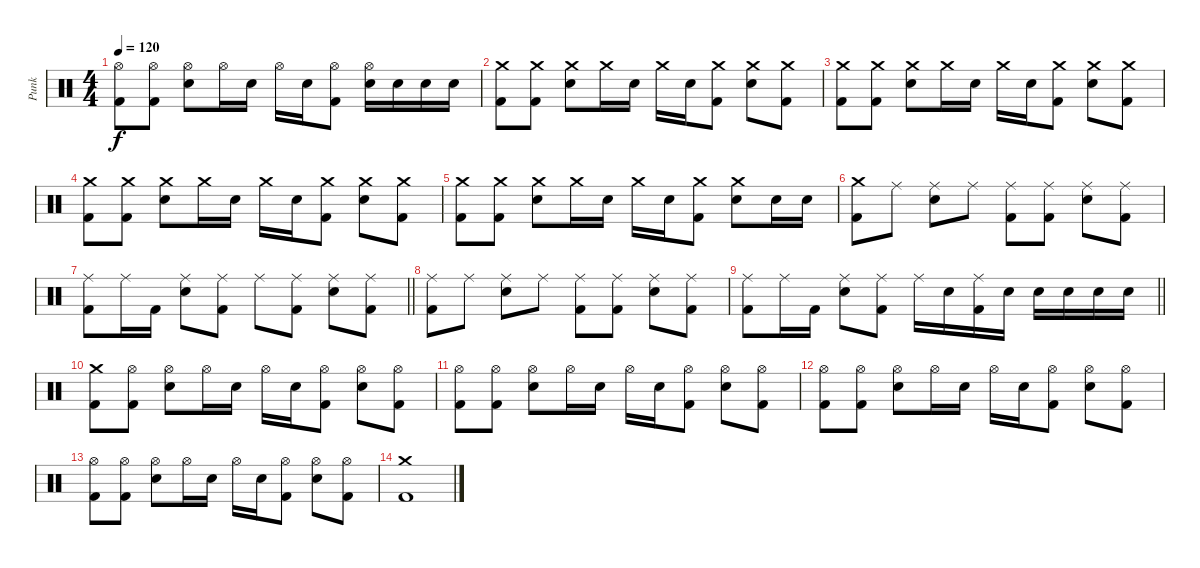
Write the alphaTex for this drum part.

\track ("Punk" "Punk") {instrument percussion}
\staff {score}
\articulation defaults
\ts (4 4)
\tempo 120
\clef neutral
\ks c
("Hi-Hat (open)" "Kick (hit) 2").8{dy f} ("Hi-Hat (open)" "Kick (hit) 2").8 ("Hi-Hat (open)" "Electric Snare (hit)").8 "Hi-Hat (open)".16 "Electric Snare (hit)".16 "Hi-Hat (open)".16 "Electric Snare (hit)".16 ("Hi-Hat (open)" "Kick (hit) 2").8 ("Hi-Hat (open)" "Electric Snare (hit)").16 "Electric Snare (hit)".16 "Electric Snare (hit)".16 "Electric Snare (hit)".16 |
("Crash medium (hit)" "Kick (hit) 2").8 ("Crash medium (hit)" "Kick (hit) 2").8 ("Crash medium (hit)" "Electric Snare (hit)").8 "Crash medium (hit)".16 "Electric Snare (hit)".16 "Crash medium (hit)".16 "Electric Snare (hit)".16 ("Crash medium (hit)" "Kick (hit) 2").8 ("Crash medium (hit)" "Electric Snare (hit)").8 ("Crash medium (hit)" "Kick (hit) 2").8 |
("Crash medium (hit)" "Kick (hit) 2").8 ("Crash medium (hit)" "Kick (hit) 2").8 ("Crash medium (hit)" "Electric Snare (hit)").8 "Crash medium (hit)".16 "Electric Snare (hit)".16 "Crash medium (hit)".16 "Electric Snare (hit)".16 ("Crash medium (hit)" "Kick (hit) 2").8 ("Crash medium (hit)" "Electric Snare (hit)").8 ("Crash medium (hit)" "Kick (hit) 2").8 |
("Crash medium (hit)" "Kick (hit) 2").8 ("Crash medium (hit)" "Kick (hit) 2").8 ("Crash medium (hit)" "Electric Snare (hit)").8 "Crash medium (hit)".16 "Electric Snare (hit)".16 "Crash medium (hit)".16 "Electric Snare (hit)".16 ("Crash medium (hit)" "Kick (hit) 2").8 ("Crash medium (hit)" "Electric Snare (hit)").8 ("Crash medium (hit)" "Kick (hit) 2").8 |
("Crash medium (hit)" "Kick (hit) 2").8 ("Crash medium (hit)" "Kick (hit) 2").8 ("Crash medium (hit)" "Electric Snare (hit)").8 "Crash medium (hit)".16 "Electric Snare (hit)".16 "Crash medium (hit)".16 "Electric Snare (hit)".16 ("Crash medium (hit)" "Kick (hit) 2").8 ("Crash medium (hit)" "Electric Snare (hit)").8 "Electric Snare (hit)".16 "Electric Snare (hit)".16 |
("Crash medium (hit)" "Kick (hit) 2").8 "Ride (middle)".8 ("Ride (middle)" "Electric Snare (hit)").8 "Ride (middle)".8 ("Ride (middle)" "Kick (hit) 2").8 ("Ride (middle)" "Kick (hit) 2").8 ("Ride (middle)" "Electric Snare (hit)").8 ("Ride (middle)" "Kick (hit) 2").8 |
\barLineRight lightlight
("Ride (middle)" "Kick (hit) 2").8 "Ride (middle)".16 "Kick (hit) 2".16 ("Ride (middle)" "Electric Snare (hit)").8 ("Ride (middle)" "Kick (hit) 2").8 "Ride (middle)".8 ("Ride (middle)" "Kick (hit) 2").8 ("Ride (middle)" "Electric Snare (hit)").8 ("Ride (middle)" "Kick (hit) 2").8 |
("Ride (middle)" "Kick (hit) 2").8 "Ride (middle)".8 ("Ride (middle)" "Electric Snare (hit)").8 "Ride (middle)".8 ("Ride (middle)" "Kick (hit) 2").8 ("Ride (middle)" "Kick (hit) 2").8 ("Ride (middle)" "Electric Snare (hit)").8 ("Ride (middle)" "Kick (hit) 2").8 |
\barLineRight lightlight
("Ride (middle)" "Kick (hit) 2").8 "Ride (middle)".16 "Kick (hit) 2".16 ("Ride (middle)" "Electric Snare (hit)").8 ("Ride (middle)" "Kick (hit) 2").8 "Ride (middle)".16 "Electric Snare (hit)".16 ("Ride (middle)" "Kick (hit) 2").16 "Electric Snare (hit)".16 "Electric Snare (hit)".16 "Electric Snare (hit)".16 "Electric Snare (hit)".16 "Electric Snare (hit)".16 |
("Crash medium (hit)" "Kick (hit) 2").8 ("Hi-Hat (open)" "Kick (hit) 2").8 ("Hi-Hat (open)" "Electric Snare (hit)").8 "Hi-Hat (open)".16 "Electric Snare (hit)".16 "Hi-Hat (open)".16 "Electric Snare (hit)".16 ("Hi-Hat (open)" "Kick (hit) 2").8 ("Hi-Hat (open)" "Electric Snare (hit)").8 ("Hi-Hat (open)" "Kick (hit) 2").8 |
("Hi-Hat (open)" "Kick (hit) 2").8 ("Hi-Hat (open)" "Kick (hit) 2").8 ("Hi-Hat (open)" "Electric Snare (hit)").8 "Hi-Hat (open)".16 "Electric Snare (hit)".16 "Hi-Hat (open)".16 "Electric Snare (hit)".16 ("Hi-Hat (open)" "Kick (hit) 2").8 ("Hi-Hat (open)" "Electric Snare (hit)").8 ("Hi-Hat (open)" "Kick (hit) 2").8 |
("Hi-Hat (open)" "Kick (hit) 2").8 ("Hi-Hat (open)" "Kick (hit) 2").8 ("Hi-Hat (open)" "Electric Snare (hit)").8 "Hi-Hat (open)".16 "Electric Snare (hit)".16 "Hi-Hat (open)".16 "Electric Snare (hit)".16 ("Hi-Hat (open)" "Kick (hit) 2").8 ("Hi-Hat (open)" "Electric Snare (hit)").8 ("Hi-Hat (open)" "Kick (hit) 2").8 |
("Hi-Hat (open)" "Kick (hit) 2").8 ("Hi-Hat (open)" "Kick (hit) 2").8 ("Hi-Hat (open)" "Electric Snare (hit)").8 "Hi-Hat (open)".16 "Electric Snare (hit)".16 "Hi-Hat (open)".16 "Electric Snare (hit)".16 ("Hi-Hat (open)" "Kick (hit) 2").8 ("Hi-Hat (open)" "Electric Snare (hit)").8 ("Hi-Hat (open)" "Kick (hit) 2").8 |
("Crash medium (hit)" "Kick (hit) 2").1
